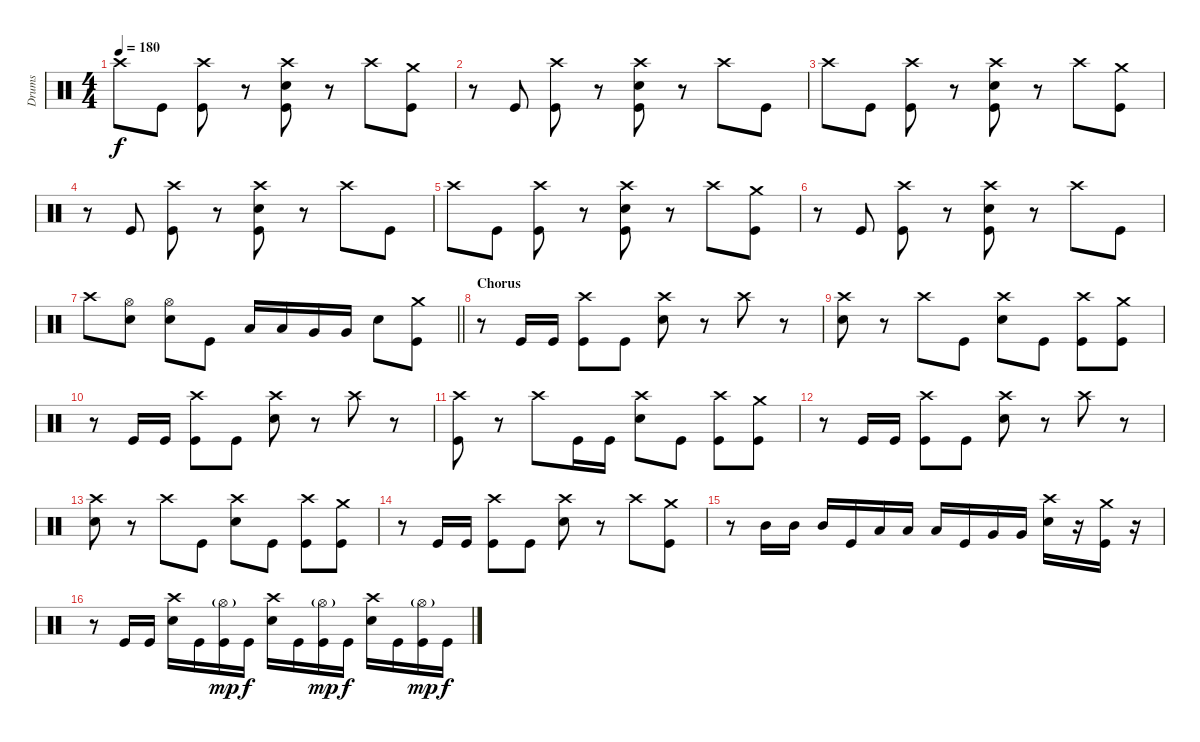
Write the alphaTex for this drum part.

\track ("Drums" "Drums") {instrument percussion}
\staff {score}
\articulation defaults
\ts (4 4)
\tempo 180
\clef neutral
\ks c "Crash high (hit)".8{dy f} "Kick (hit)".8
("Crash high (hit)" "Kick (hit)").8 r.8 ("Crash high (hit)" "Electric Snare (hit)" "Kick (hit)").8 r.8 "Crash high (hit)".8 ("Crash medium (hit)" "Kick (hit)").8 |
r.8 "Kick (hit)".8 ("Crash high (hit)" "Kick (hit)").8 r.8 ("Crash high (hit)" "Electric Snare (hit)" "Kick (hit)").8 r.8 "Crash high (hit)".8 "Kick (hit)".8 |
"Crash high (hit)".8 "Kick (hit)".8 ("Crash high (hit)" "Kick (hit)").8 r.8 ("Crash high (hit)" "Electric Snare (hit)" "Kick (hit)").8 r.8 "Crash high (hit)".8 ("Crash medium (hit)" "Kick (hit)").8 |
r.8 "Kick (hit)".8 ("Crash high (hit)" "Kick (hit)").8 r.8 ("Crash high (hit)" "Electric Snare (hit)" "Kick (hit)").8 r.8 "Crash high (hit)".8 "Kick (hit)".8 |
"Crash high (hit)".8 "Kick (hit)".8 ("Crash high (hit)" "Kick (hit)").8 r.8 ("Crash high (hit)" "Electric Snare (hit)" "Kick (hit)").8 r.8 "Crash high (hit)".8 ("Crash medium (hit)" "Kick (hit)").8 |
r.8 "Kick (hit)".8 ("Crash high (hit)" "Kick (hit)").8 r.8 ("Crash high (hit)" "Electric Snare (hit)" "Kick (hit)").8 r.8 "Crash high (hit)".8 "Kick (hit)".8 |
\barLineRight lightlight "Crash high (hit)".8
("Hi-Hat (open)" "Electric Snare (hit)").8 ("Hi-Hat (open)" "Electric Snare (hit)").8 "Kick (hit)".8 "Low Tom (hit)".16 "Low Tom (hit)".16 "Very Low Tom (hit)".16 "Very Low Tom (hit)".16 "Electric Snare (hit)".8 ("Crash medium (hit)" "Kick (hit)").8 |
\section ("" "Chorus")
r.8 "Kick (hit)".16 "Kick (hit)".16 ("Crash high (hit)" "Kick (hit)").8 "Kick (hit)".8 ("Crash high (hit)" "Electric Snare (hit)").8 r.8 "Crash high (hit)".8 r.8 |
("Crash high (hit)" "Electric Snare (hit)").8 r.8 "Crash high (hit)".8 "Kick (hit)".8 ("Crash high (hit)" "Electric Snare (hit)").8 "Kick (hit)".8 ("Crash high (hit)" "Kick (hit)").8 ("Crash medium (hit)" "Kick (hit)").8 |
r.8 "Kick (hit)".16 "Kick (hit)".16 ("Crash high (hit)" "Kick (hit)").8 "Kick (hit)".8 ("Crash high (hit)" "Electric Snare (hit)").8 r.8 "Crash high (hit)".8 r.8 |
("Crash high (hit)" "Kick (hit)").8 r.8 "Crash high (hit)".8 "Kick (hit)".16 "Kick (hit)".16 ("Crash high (hit)" "Electric Snare (hit)").8 "Kick (hit)".8 ("Crash high (hit)" "Kick (hit)").8 ("Crash medium (hit)" "Kick (hit)").8 |
r.8 "Kick (hit)".16 "Kick (hit)".16 ("Crash high (hit)" "Kick (hit)").8 "Kick (hit)".8 ("Crash high (hit)" "Electric Snare (hit)").8 r.8 "Crash high (hit)".8 r.8 |
("Crash high (hit)" "Electric Snare (hit)").8 r.8 "Crash high (hit)".8 "Kick (hit)".8 ("Crash high (hit)" "Electric Snare (hit)").8 "Kick (hit)".8 ("Crash high (hit)" "Kick (hit)").8 ("Crash medium (hit)" "Kick (hit)").8 |
r.8 "Kick (hit)".16 "Kick (hit)".16 ("Crash high (hit)" "Kick (hit)").8 "Kick (hit)".8 ("Crash high (hit)" "Electric Snare (hit)").8 r.8 "Crash high (hit)".8 ("Crash medium (hit)" "Kick (hit)").8 |
r.8 "Mid Tom (hit)".16 "Mid Tom (hit)".16 "Mid Tom (hit)".16 "Kick (hit)".16 "Low Tom (hit)".16 "Low Tom (hit)".16 "Low Tom (hit)".16 "Kick (hit)".16 "Very Low Tom (hit)".16 "Very Low Tom (hit)".16 ("Crash high (hit)" "Electric Snare (hit)").16 r.16 ("Crash medium (hit)" "Kick (hit)").16 r.16 |
r.8 "Kick (hit)".16 "Kick (hit)".16 ("Crash high (hit)" "Electric Snare (hit)").16 "Kick (hit)".16 ("Hi-Hat (open)"{g} "Kick (hit)").16{dy mp} "Kick (hit)".16{dy f} ("Crash high (hit)" "Electric Snare (hit)").16 "Kick (hit)".16 ("Hi-Hat (open)"{g} "Kick (hit)").16{dy mp} "Kick (hit)".16{dy f} ("Crash high (hit)" "Electric Snare (hit)").16 "Kick (hit)".16 ("Hi-Hat (open)"{g} "Kick (hit)").16{dy mp} "Kick (hit)".16{dy f}
